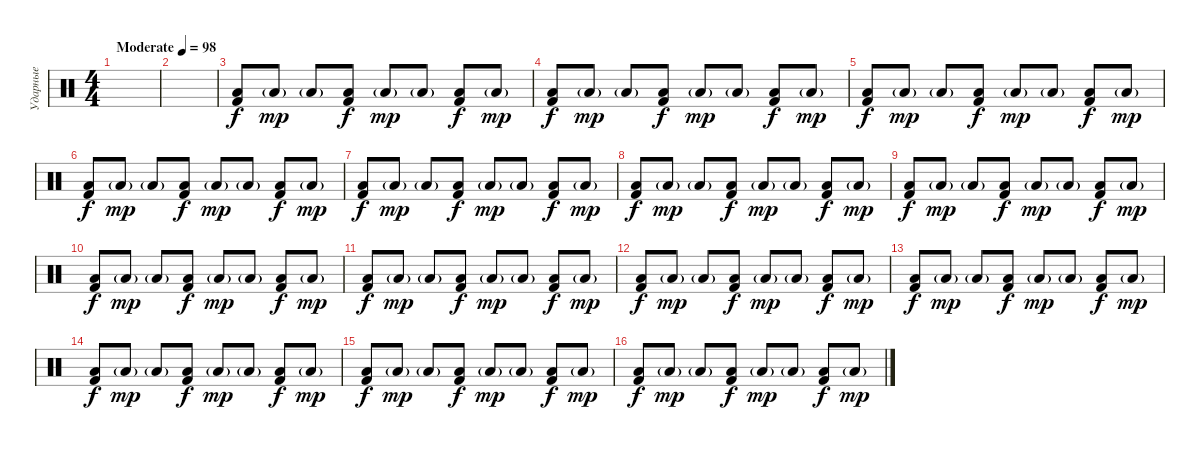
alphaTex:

\track ("Ударные" "Ударные") {instrument percussion}
\staff {score}
\articulation defaults
\ts (4 4)
\tempo (98 "Moderate")
\clef neutral
\ks c
|
|
("Kick (hit) 2" "Low Tom (hit)").8 "Low Tom (hit)"{g}.8{dy mp} "Low Tom (hit)"{g}.8 ("Kick (hit) 2" "Low Tom (hit)").8{dy f} "Low Tom (hit)"{g}.8{dy mp} "Low Tom (hit)"{g}.8 ("Kick (hit) 2" "Low Tom (hit)").8{dy f} "Low Tom (hit)"{g}.8{dy mp} |
("Kick (hit) 2" "Low Tom (hit)").8{dy f} "Low Tom (hit)"{g}.8{dy mp} "Low Tom (hit)"{g}.8 ("Kick (hit) 2" "Low Tom (hit)").8{dy f} "Low Tom (hit)"{g}.8{dy mp} "Low Tom (hit)"{g}.8 ("Kick (hit) 2" "Low Tom (hit)").8{dy f} "Low Tom (hit)"{g}.8{dy mp} |
("Kick (hit) 2" "Low Tom (hit)").8{dy f} "Low Tom (hit)"{g}.8{dy mp} "Low Tom (hit)"{g}.8 ("Kick (hit) 2" "Low Tom (hit)").8{dy f} "Low Tom (hit)"{g}.8{dy mp} "Low Tom (hit)"{g}.8 ("Kick (hit) 2" "Low Tom (hit)").8{dy f} "Low Tom (hit)"{g}.8{dy mp} |
("Kick (hit) 2" "Low Tom (hit)").8{dy f} "Low Tom (hit)"{g}.8{dy mp} "Low Tom (hit)"{g}.8 ("Kick (hit) 2" "Low Tom (hit)").8{dy f} "Low Tom (hit)"{g}.8{dy mp} "Low Tom (hit)"{g}.8 ("Kick (hit) 2" "Low Tom (hit)").8{dy f} "Low Tom (hit)"{g}.8{dy mp} |
("Kick (hit) 2" "Low Tom (hit)").8{dy f} "Low Tom (hit)"{g}.8{dy mp} "Low Tom (hit)"{g}.8 ("Kick (hit) 2" "Low Tom (hit)").8{dy f} "Low Tom (hit)"{g}.8{dy mp} "Low Tom (hit)"{g}.8 ("Kick (hit) 2" "Low Tom (hit)").8{dy f} "Low Tom (hit)"{g}.8{dy mp} |
("Kick (hit) 2" "Low Tom (hit)").8{dy f} "Low Tom (hit)"{g}.8{dy mp} "Low Tom (hit)"{g}.8 ("Kick (hit) 2" "Low Tom (hit)").8{dy f} "Low Tom (hit)"{g}.8{dy mp} "Low Tom (hit)"{g}.8 ("Kick (hit) 2" "Low Tom (hit)").8{dy f} "Low Tom (hit)"{g}.8{dy mp} |
("Kick (hit) 2" "Low Tom (hit)").8{dy f} "Low Tom (hit)"{g}.8{dy mp} "Low Tom (hit)"{g}.8 ("Kick (hit) 2" "Low Tom (hit)").8{dy f} "Low Tom (hit)"{g}.8{dy mp} "Low Tom (hit)"{g}.8 ("Kick (hit) 2" "Low Tom (hit)").8{dy f} "Low Tom (hit)"{g}.8{dy mp} |
("Kick (hit) 2" "Low Tom (hit)").8{dy f} "Low Tom (hit)"{g}.8{dy mp} "Low Tom (hit)"{g}.8 ("Kick (hit) 2" "Low Tom (hit)").8{dy f} "Low Tom (hit)"{g}.8{dy mp} "Low Tom (hit)"{g}.8 ("Kick (hit) 2" "Low Tom (hit)").8{dy f} "Low Tom (hit)"{g}.8{dy mp} |
("Kick (hit) 2" "Low Tom (hit)").8{dy f} "Low Tom (hit)"{g}.8{dy mp} "Low Tom (hit)"{g}.8 ("Kick (hit) 2" "Low Tom (hit)").8{dy f} "Low Tom (hit)"{g}.8{dy mp} "Low Tom (hit)"{g}.8 ("Kick (hit) 2" "Low Tom (hit)").8{dy f} "Low Tom (hit)"{g}.8{dy mp} |
("Kick (hit) 2" "Low Tom (hit)").8{dy f} "Low Tom (hit)"{g}.8{dy mp} "Low Tom (hit)"{g}.8 ("Kick (hit) 2" "Low Tom (hit)").8{dy f} "Low Tom (hit)"{g}.8{dy mp} "Low Tom (hit)"{g}.8 ("Kick (hit) 2" "Low Tom (hit)").8{dy f} "Low Tom (hit)"{g}.8{dy mp} |
("Kick (hit) 2" "Low Tom (hit)").8{dy f} "Low Tom (hit)"{g}.8{dy mp} "Low Tom (hit)"{g}.8 ("Kick (hit) 2" "Low Tom (hit)").8{dy f} "Low Tom (hit)"{g}.8{dy mp} "Low Tom (hit)"{g}.8 ("Kick (hit) 2" "Low Tom (hit)").8{dy f} "Low Tom (hit)"{g}.8{dy mp} |
("Kick (hit) 2" "Low Tom (hit)").8{dy f} "Low Tom (hit)"{g}.8{dy mp} "Low Tom (hit)"{g}.8 ("Kick (hit) 2" "Low Tom (hit)").8{dy f} "Low Tom (hit)"{g}.8{dy mp} "Low Tom (hit)"{g}.8 ("Kick (hit) 2" "Low Tom (hit)").8{dy f} "Low Tom (hit)"{g}.8{dy mp} |
("Kick (hit) 2" "Low Tom (hit)").8{dy f} "Low Tom (hit)"{g}.8{dy mp} "Low Tom (hit)"{g}.8 ("Kick (hit) 2" "Low Tom (hit)").8{dy f} "Low Tom (hit)"{g}.8{dy mp} "Low Tom (hit)"{g}.8 ("Kick (hit) 2" "Low Tom (hit)").8{dy f} "Low Tom (hit)"{g}.8{dy mp} |
("Kick (hit) 2" "Low Tom (hit)").8{dy f} "Low Tom (hit)"{g}.8{dy mp} "Low Tom (hit)"{g}.8 ("Kick (hit) 2" "Low Tom (hit)").8{dy f} "Low Tom (hit)"{g}.8{dy mp} "Low Tom (hit)"{g}.8 ("Kick (hit) 2" "Low Tom (hit)").8{dy f} "Low Tom (hit)"{g}.8{dy mp}
